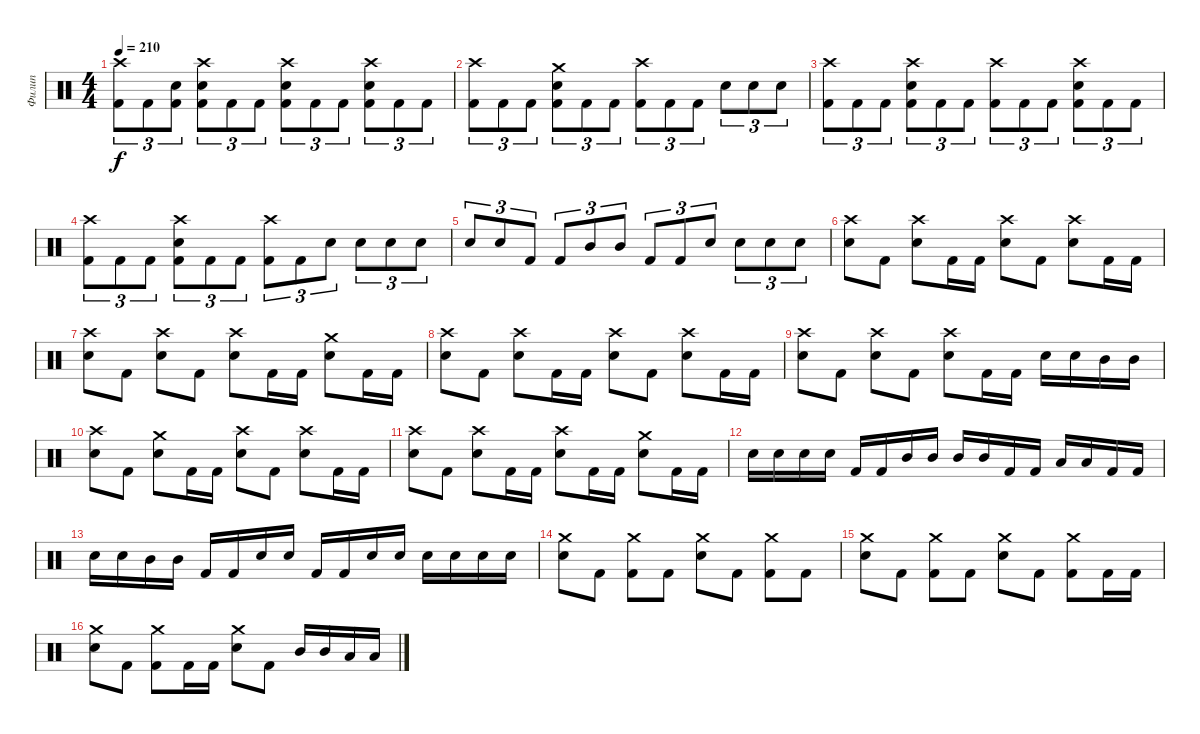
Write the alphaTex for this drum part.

\track ("Филип" "Филип") {instrument percussion}
\staff {score}
\articulation defaults
\ts (4 4)
\tempo 210
\clef neutral
\ks c
("Crash high (hit)" "Kick (hit) 2").8{tu (3 2) dy f} "Kick (hit) 2".8{tu (3 2)} ("Electric Snare (hit)" "Kick (hit) 2").8{tu (3 2)} ("Crash high (hit)" "Electric Snare (hit)" "Kick (hit) 2").8{tu (3 2)} "Kick (hit) 2".8{tu (3 2)} "Kick (hit) 2".8{tu (3 2)} ("Crash high (hit)" "Electric Snare (hit)" "Kick (hit) 2").8{tu (3 2)} "Kick (hit) 2".8{tu (3 2)} "Kick (hit) 2".8{tu (3 2)} ("Crash high (hit)" "Electric Snare (hit)" "Kick (hit) 2").8{tu (3 2)} "Kick (hit) 2".8{tu (3 2)} "Kick (hit) 2".8{tu (3 2)} |
("Crash high (hit)" "Kick (hit) 2").8{tu (3 2)} "Kick (hit) 2".8{tu (3 2)} "Kick (hit) 2".8{tu (3 2)} ("Crash medium (hit)" "Electric Snare (hit)" "Kick (hit) 2").8{tu (3 2)} "Kick (hit) 2".8{tu (3 2)} "Kick (hit) 2".8{tu (3 2)} ("Crash high (hit)" "Kick (hit) 2").8{tu (3 2)} "Kick (hit) 2".8{tu (3 2)} "Kick (hit) 2".8{tu (3 2)} "Electric Snare (hit)".8{tu (3 2)} "Electric Snare (hit)".8{tu (3 2)} "Electric Snare (hit)".8{tu (3 2)} |
("Crash high (hit)" "Kick (hit) 2").8{tu (3 2)} "Kick (hit) 2".8{tu (3 2)} "Kick (hit) 2".8{tu (3 2)} ("Crash high (hit)" "Electric Snare (hit)" "Kick (hit) 2").8{tu (3 2)} "Kick (hit) 2".8{tu (3 2)} "Kick (hit) 2".8{tu (3 2)} ("Crash high (hit)" "Kick (hit) 2").8{tu (3 2)} "Kick (hit) 2".8{tu (3 2)} "Kick (hit) 2".8{tu (3 2)} ("Crash high (hit)" "Electric Snare (hit)" "Kick (hit) 2").8{tu (3 2)} "Kick (hit) 2".8{tu (3 2)} "Kick (hit) 2".8{tu (3 2)} |
("Crash high (hit)" "Kick (hit) 2").8{tu (3 2)} "Kick (hit) 2".8{tu (3 2)} "Kick (hit) 2".8{tu (3 2)} ("Crash high (hit)" "Electric Snare (hit)" "Kick (hit) 2").8{tu (3 2)} "Kick (hit) 2".8{tu (3 2)} "Kick (hit) 2".8{tu (3 2)} ("Crash high (hit)" "Kick (hit) 2").8{tu (3 2)} "Kick (hit) 2".8{tu (3 2)} "Electric Snare (hit)".8{tu (3 2)} "Electric Snare (hit)".8{tu (3 2)} "Electric Snare (hit)".8{tu (3 2)} "Electric Snare (hit)".8{tu (3 2)} |
"Electric Snare (hit)".8{tu (3 2)} "Electric Snare (hit)".8{tu (3 2)} "Kick (hit) 2".8{tu (3 2)} "Kick (hit) 2".8{tu (3 2)} "Mid Tom (hit)".8{tu (3 2)} "Mid Tom (hit)".8{tu (3 2)} "Kick (hit) 2".8{tu (3 2)} "Kick (hit) 2".8{tu (3 2)} "Electric Snare (hit)".8{tu (3 2)} "Electric Snare (hit)".8{tu (3 2)} "Electric Snare (hit)".8{tu (3 2)} "Electric Snare (hit)".8{tu (3 2)} |
("Crash high (hit)" "Electric Snare (hit)").8 "Kick (hit) 2".8 ("Crash high (hit)" "Electric Snare (hit)").8 "Kick (hit) 2".16 "Kick (hit) 2".16 ("Crash high (hit)" "Electric Snare (hit)").8 "Kick (hit) 2".8 ("Crash high (hit)" "Electric Snare (hit)").8 "Kick (hit) 2".16 "Kick (hit) 2".16 |
("Crash high (hit)" "Electric Snare (hit)").8 "Kick (hit) 2".8 ("Crash high (hit)" "Electric Snare (hit)").8 "Kick (hit) 2".8 ("Crash high (hit)" "Electric Snare (hit)").8 "Kick (hit) 2".16 "Kick (hit) 2".16 ("Crash medium (hit)" "Electric Snare (hit)").8 "Kick (hit) 2".16 "Kick (hit) 2".16 |
("Crash high (hit)" "Electric Snare (hit)").8 "Kick (hit) 2".8 ("Crash high (hit)" "Electric Snare (hit)").8 "Kick (hit) 2".16 "Kick (hit) 2".16 ("Crash high (hit)" "Electric Snare (hit)").8 "Kick (hit) 2".8 ("Crash high (hit)" "Electric Snare (hit)").8 "Kick (hit) 2".16 "Kick (hit) 2".16 |
("Crash high (hit)" "Electric Snare (hit)").8 "Kick (hit) 2".8 ("Crash high (hit)" "Electric Snare (hit)").8 "Kick (hit) 2".8 ("Crash high (hit)" "Electric Snare (hit)").8 "Kick (hit) 2".16 "Kick (hit) 2".16 "Electric Snare (hit)".16 "Electric Snare (hit)".16 "Mid Tom (hit)".16 "Mid Tom (hit)".16 |
("Crash high (hit)" "Electric Snare (hit)").8 "Kick (hit) 2".8 ("Crash medium (hit)" "Electric Snare (hit)").8 "Kick (hit) 2".16 "Kick (hit) 2".16 ("Crash high (hit)" "Electric Snare (hit)").8 "Kick (hit) 2".8 ("Crash high (hit)" "Electric Snare (hit)").8 "Kick (hit) 2".16 "Kick (hit) 2".16 |
("Crash high (hit)" "Electric Snare (hit)").8 "Kick (hit) 2".8 ("Crash high (hit)" "Electric Snare (hit)").8 "Kick (hit) 2".16 "Kick (hit) 2".16 ("Crash high (hit)" "Electric Snare (hit)").8 "Kick (hit) 2".16 "Kick (hit) 2".16 ("Crash medium (hit)" "Electric Snare (hit)").8 "Kick (hit) 2".16 "Kick (hit) 2".16 |
"Electric Snare (hit)".16 "Electric Snare (hit)".16 "Electric Snare (hit)".16 "Electric Snare (hit)".16 "Kick (hit) 2".16 "Kick (hit) 2".16 "Mid Tom (hit)".16 "Mid Tom (hit)".16 "Mid Tom (hit)".16 "Mid Tom (hit)".16 "Kick (hit) 2".16 "Kick (hit) 2".16 "Low Tom (hit)".16 "Low Tom (hit)".16 "Kick (hit) 2".16 "Kick (hit) 2".16 |
"Electric Snare (hit)".16 "Electric Snare (hit)".16 "Mid Tom (hit)".16 "Mid Tom (hit)".16 "Kick (hit) 2".16 "Kick (hit) 2".16 "Electric Snare (hit)".16 "Electric Snare (hit)".16 "Kick (hit) 2".16 "Kick (hit) 2".16 "Electric Snare (hit)".16 "Electric Snare (hit)".16 "Electric Snare (hit)".16 "Electric Snare (hit)".16 "Electric Snare (hit)".16 "Electric Snare (hit)".16 |
("Crash medium (hit)" "Electric Snare (hit)").8 "Kick (hit) 2".8 ("Crash medium (hit)" "Kick (hit) 2").8 "Kick (hit) 2".8 ("Crash medium (hit)" "Electric Snare (hit)").8 "Kick (hit) 2".8 ("Crash medium (hit)" "Kick (hit) 2").8 "Kick (hit) 2".8 |
("Crash medium (hit)" "Electric Snare (hit)").8 "Kick (hit) 2".8 ("Crash medium (hit)" "Kick (hit) 2").8 "Kick (hit) 2".8 ("Crash medium (hit)" "Electric Snare (hit)").8 "Kick (hit) 2".8 ("Crash medium (hit)" "Kick (hit) 2").8 "Kick (hit) 2".16 "Kick (hit) 2".16 |
("Crash medium (hit)" "Electric Snare (hit)").8 "Kick (hit) 2".8 ("Crash medium (hit)" "Kick (hit) 2").8 "Kick (hit) 2".16 "Kick (hit) 2".16 ("Crash medium (hit)" "Electric Snare (hit)").8 "Kick (hit) 2".8 "Mid Tom (hit)".16 "Mid Tom (hit)".16 "Low Tom (hit)".16 "Low Tom (hit)".16
